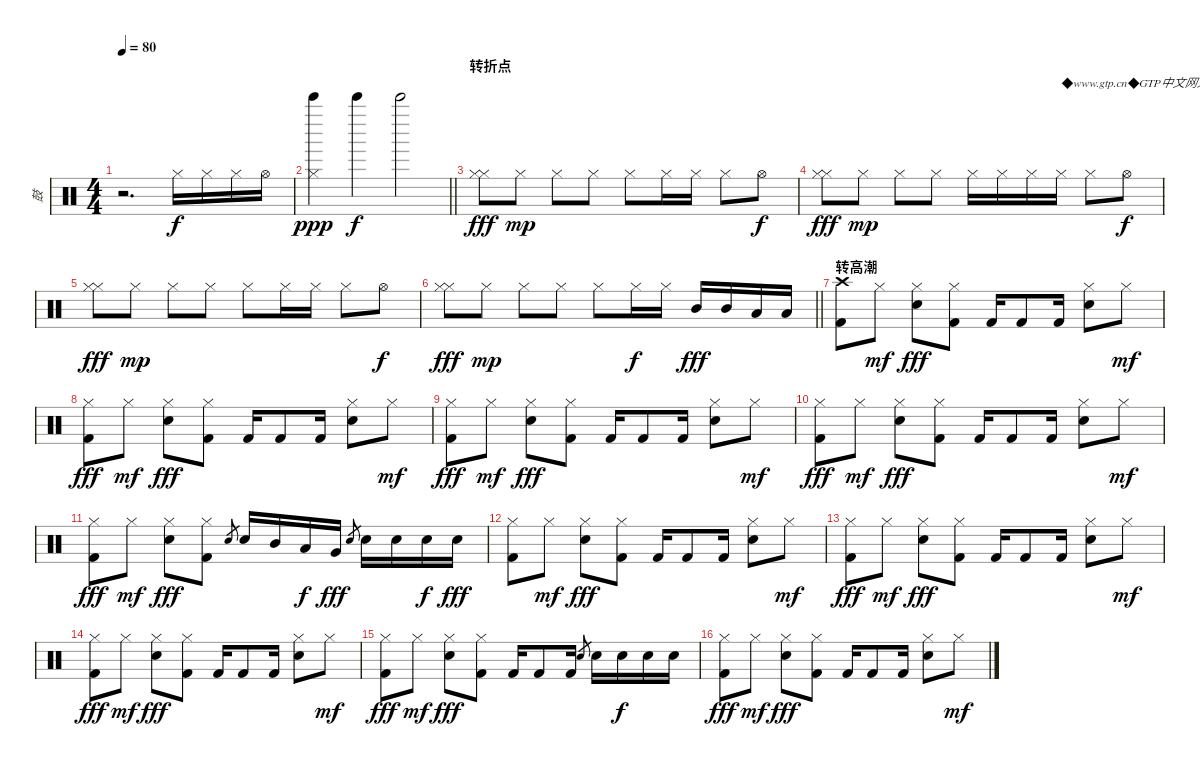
\track ("鼓" "鼓") {instrument percussion}
\staff {score}
\articulation defaults
\ts (4 4)
\tempo 80
\clef neutral
\ks c
r.2{d dy ppp} "Hi-Hat (closed)".16{dy f} "Hi-Hat (closed)".16 "Hi-Hat (closed)".16 "Hi-Hat (open)".16 |
\barLineRight lightlight
("Hi-Hat (closed)" "Bell Tree (hit)").4{dy ppp} "Bell Tree (hit)".4{dy f} "Bell Tree (hit)".2 |
\section ("" "转折点")
("Hi-Hat (closed)" "Hi-Hat (closed)").8{dy fff} "Hi-Hat (closed)".8{dy mp} "Hi-Hat (closed)".8 "Hi-Hat (closed)".8 "Hi-Hat (closed)".8 "Hi-Hat (closed)".16 "Hi-Hat (closed)".16 "Hi-Hat (closed)".8 "Hi-Hat (open)".8{dy f} |
("Hi-Hat (closed)" "Hi-Hat (closed)").8{dy fff} "Hi-Hat (closed)".8{dy mp} "Hi-Hat (closed)".8 "Hi-Hat (closed)".8 "Hi-Hat (closed)".16 "Hi-Hat (closed)".16 "Hi-Hat (closed)".16 "Hi-Hat (closed)".16{txt "◆www.gtp.cn◆GTP中文网为您提供优秀的GTP！"} "Hi-Hat (closed)".8 "Hi-Hat (open)".8{dy f} |
("Hi-Hat (closed)" "Hi-Hat (closed)").8{dy fff} "Hi-Hat (closed)".8{dy mp} "Hi-Hat (closed)".8 "Hi-Hat (closed)".8 "Hi-Hat (closed)".8 "Hi-Hat (closed)".16 "Hi-Hat (closed)".16 "Hi-Hat (closed)".8 "Hi-Hat (open)".8{dy f} |
\barLineRight lightlight
("Hi-Hat (closed)" "Hi-Hat (closed)").8{dy fff} "Hi-Hat (closed)".8{dy mp} "Hi-Hat (closed)".8 "Hi-Hat (closed)".8 "Hi-Hat (closed)".8 "Hi-Hat (closed)".16{dy f} "Hi-Hat (closed)".16 "Mid Tom (hit)".16{dy fff} "Mid Tom (hit)".16 "Low Tom (hit)".16 "Low Tom (hit)".16 |
\section ("" "转高潮")
("Crash high (hit)" "Kick (hit) 2").8 "Hi-Hat (closed)".8{dy mf} ("Hi-Hat (closed)" "Electric Snare (hit)").8{dy fff} ("Hi-Hat (closed)" "Kick (hit) 2").8 "Kick (hit) 2".16 "Kick (hit) 2".8 "Kick (hit) 2".16 ("Hi-Hat (closed)" "Electric Snare (hit)").8 "Hi-Hat (closed)".8{dy mf} |
("Hi-Hat (closed)" "Kick (hit) 2").8{dy fff} "Hi-Hat (closed)".8{dy mf} ("Hi-Hat (closed)" "Electric Snare (hit)").8{dy fff} ("Hi-Hat (closed)" "Kick (hit) 2").8 "Kick (hit) 2".16 "Kick (hit) 2".8 "Kick (hit) 2".16 ("Hi-Hat (closed)" "Electric Snare (hit)").8 "Hi-Hat (closed)".8{dy mf} |
("Hi-Hat (closed)" "Kick (hit) 2").8{dy fff} "Hi-Hat (closed)".8{dy mf} ("Hi-Hat (closed)" "Electric Snare (hit)").8{dy fff} ("Hi-Hat (closed)" "Kick (hit) 2").8 "Kick (hit) 2".16 "Kick (hit) 2".8 "Kick (hit) 2".16 ("Hi-Hat (closed)" "Electric Snare (hit)").8 "Hi-Hat (closed)".8{dy mf} |
("Hi-Hat (closed)" "Kick (hit) 2").8{dy fff} "Hi-Hat (closed)".8{dy mf} ("Hi-Hat (closed)" "Electric Snare (hit)").8{dy fff} ("Hi-Hat (closed)" "Kick (hit) 2").8 "Kick (hit) 2".16 "Kick (hit) 2".8 "Kick (hit) 2".16 ("Hi-Hat (closed)" "Electric Snare (hit)").8 "Hi-Hat (closed)".8{dy mf} |
("Hi-Hat (closed)" "Kick (hit) 2").8{dy fff} "Hi-Hat (closed)".8{dy mf} ("Hi-Hat (closed)" "Electric Snare (hit)").8{dy fff} ("Hi-Hat (closed)" "Kick (hit) 2").8 "Electric Snare (hit)".8{gr} "Electric Snare (hit)".16 "Mid Tom (hit)".16 "Low Tom (hit)".16{dy f} "Very Low Tom (hit)".16{dy fff} "Electric Snare (hit)".8{gr} "Electric Snare (hit)".16 "Electric Snare (hit)".16 "Electric Snare (hit)".16{dy f} "Electric Snare (hit)".16{dy fff} |
("Hi-Hat (closed)" "Kick (hit) 2").8 "Hi-Hat (closed)".8{dy mf} ("Hi-Hat (closed)" "Electric Snare (hit)").8{dy fff} ("Hi-Hat (closed)" "Kick (hit) 2").8 "Kick (hit) 2".16 "Kick (hit) 2".8 "Kick (hit) 2".16 ("Hi-Hat (closed)" "Electric Snare (hit)").8 "Hi-Hat (closed)".8{dy mf} |
("Hi-Hat (closed)" "Kick (hit) 2").8{dy fff} "Hi-Hat (closed)".8{dy mf} ("Hi-Hat (closed)" "Electric Snare (hit)").8{dy fff} ("Hi-Hat (closed)" "Kick (hit) 2").8 "Kick (hit) 2".16 "Kick (hit) 2".8 "Kick (hit) 2".16 ("Hi-Hat (closed)" "Electric Snare (hit)").8 "Hi-Hat (closed)".8{dy mf} |
("Hi-Hat (closed)" "Kick (hit) 2").8{dy fff} "Hi-Hat (closed)".8{dy mf} ("Hi-Hat (closed)" "Electric Snare (hit)").8{dy fff} ("Hi-Hat (closed)" "Kick (hit) 2").8 "Kick (hit) 2".16 "Kick (hit) 2".8 "Kick (hit) 2".16 ("Hi-Hat (closed)" "Electric Snare (hit)").8 "Hi-Hat (closed)".8{dy mf} |
("Hi-Hat (closed)" "Kick (hit) 2").8{dy fff} "Hi-Hat (closed)".8{dy mf} ("Hi-Hat (closed)" "Electric Snare (hit)").8{dy fff} ("Hi-Hat (closed)" "Kick (hit) 2").8 "Kick (hit) 2".16 "Kick (hit) 2".8 "Kick (hit) 2".16 "Electric Snare (hit)".8{gr} "Electric Snare (hit)".16 "Electric Snare (hit)".16{dy f} "Electric Snare (hit)".16 "Electric Snare (hit)".16 |
("Hi-Hat (closed)" "Kick (hit) 2").8{dy fff} "Hi-Hat (closed)".8{dy mf} ("Hi-Hat (closed)" "Electric Snare (hit)").8{dy fff} ("Hi-Hat (closed)" "Kick (hit) 2").8 "Kick (hit) 2".16 "Kick (hit) 2".8 "Kick (hit) 2".16 ("Hi-Hat (closed)" "Electric Snare (hit)").8 "Hi-Hat (closed)".8{dy mf}
